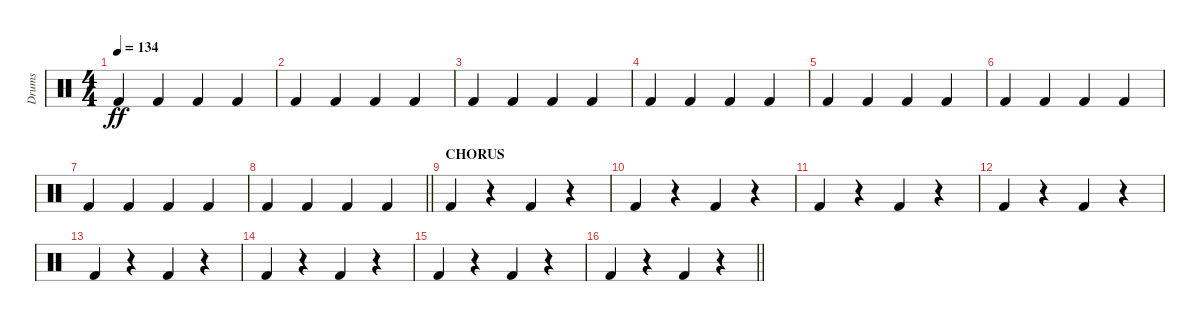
\track ("Drums" "Drums") {instrument percussion}
\staff {score}
\articulation defaults
\ts (4 4)
\tempo 134
\clef neutral
\ks c "Kick (hit) 2".4{dy ff} "Kick (hit) 2".4 "Kick (hit) 2".4 "Kick (hit) 2".4
|
"Kick (hit) 2".4 "Kick (hit) 2".4 "Kick (hit) 2".4 "Kick (hit) 2".4 |
"Kick (hit) 2".4 "Kick (hit) 2".4 "Kick (hit) 2".4 "Kick (hit) 2".4 |
"Kick (hit) 2".4 "Kick (hit) 2".4 "Kick (hit) 2".4 "Kick (hit) 2".4 |
"Kick (hit) 2".4 "Kick (hit) 2".4 "Kick (hit) 2".4 "Kick (hit) 2".4 |
"Kick (hit) 2".4 "Kick (hit) 2".4 "Kick (hit) 2".4 "Kick (hit) 2".4 |
"Kick (hit) 2".4 "Kick (hit) 2".4 "Kick (hit) 2".4 "Kick (hit) 2".4 |
\barLineRight lightlight "Kick (hit) 2".4 "Kick (hit) 2".4 "Kick (hit) 2".4 "Kick (hit) 2".4
|
\section ("" "CHORUS")
"Kick (hit) 2".4 r.4 "Kick (hit) 2".4 r.4 |
"Kick (hit) 2".4 r.4 "Kick (hit) 2".4 r.4 |
"Kick (hit) 2".4 r.4 "Kick (hit) 2".4 r.4 |
"Kick (hit) 2".4 r.4 "Kick (hit) 2".4 r.4 |
"Kick (hit) 2".4 r.4 "Kick (hit) 2".4 r.4 |
"Kick (hit) 2".4 r.4 "Kick (hit) 2".4 r.4 |
"Kick (hit) 2".4 r.4 "Kick (hit) 2".4 r.4 |
\barLineRight lightlight "Kick (hit) 2".4
r.4 "Kick (hit) 2".4 r.4
